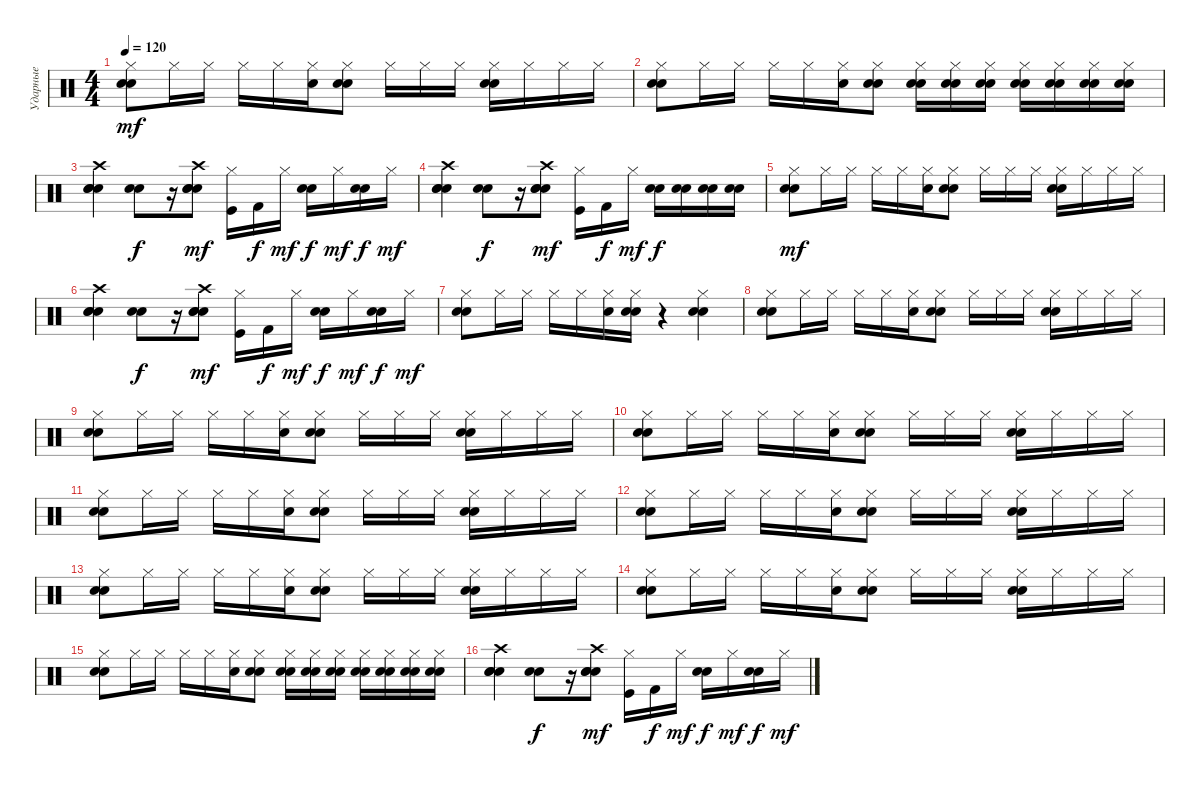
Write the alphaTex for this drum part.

\track ("Ударные" "Ударные") {instrument percussion}
\staff {score}
\articulation defaults
\ts (4 4)
\tempo 120
\clef neutral
\ks c
("Hi-Hat (closed)" "Electric Snare (hit)" "Electric Snare (hit)").8{dy mf} "Hi-Hat (closed)".16 "Hi-Hat (closed)".16 "Hi-Hat (closed)".16 "Hi-Hat (closed)".16 ("Hi-Hat (closed)" "Electric Snare (hit)").16 ("Hi-Hat (closed)" "Electric Snare (hit)" "Electric Snare (hit)").8 "Hi-Hat (closed)".16 "Hi-Hat (closed)".16 "Hi-Hat (closed)".16 ("Hi-Hat (closed)" "Electric Snare (hit)" "Electric Snare (hit)").16 "Hi-Hat (closed)".16 "Hi-Hat (closed)".16 "Hi-Hat (closed)".16 |
("Hi-Hat (closed)" "Electric Snare (hit)" "Electric Snare (hit)").8 "Hi-Hat (closed)".16 "Hi-Hat (closed)".16 "Hi-Hat (closed)".16 "Hi-Hat (closed)".16 ("Hi-Hat (closed)" "Electric Snare (hit)").16 ("Hi-Hat (closed)" "Electric Snare (hit)" "Electric Snare (hit)").8 ("Hi-Hat (closed)" "Electric Snare (hit)" "Electric Snare (hit)").16 ("Hi-Hat (closed)" "Electric Snare (hit)" "Electric Snare (hit)").16 ("Hi-Hat (closed)" "Electric Snare (hit)" "Electric Snare (hit)").16 ("Hi-Hat (closed)" "Electric Snare (hit)" "Electric Snare (hit)").16 ("Hi-Hat (closed)" "Electric Snare (hit)" "Electric Snare (hit)").16 ("Hi-Hat (closed)" "Electric Snare (hit)" "Electric Snare (hit)").16 ("Hi-Hat (closed)" "Electric Snare (hit)" "Electric Snare (hit)").16 |
("Crash high (hit)" "Electric Snare (hit)" "Electric Snare (hit)" "Snare (hit) 2").4 ("Electric Snare (hit)" "Electric Snare (hit)").8{dy f} r.16 ("Crash high (hit)" "Electric Snare (hit)" "Electric Snare (hit)" "Snare (hit) 2").8{dy mf} ("Hi-Hat (closed)" "Kick (hit)").16 "Kick (hit) 2".16{dy f} "Hi-Hat (closed)".16{dy mf} ("Electric Snare (hit)" "Electric Snare (hit)").16{dy f} "Hi-Hat (closed)".16{dy mf} ("Electric Snare (hit)" "Electric Snare (hit)").16{dy f} "Hi-Hat (closed)".16{dy mf} |
("Crash high (hit)" "Electric Snare (hit)" "Electric Snare (hit)" "Snare (hit) 2").4 ("Electric Snare (hit)" "Electric Snare (hit)").8{dy f} r.16 ("Crash high (hit)" "Electric Snare (hit)" "Electric Snare (hit)" "Snare (hit) 2").8{dy mf} ("Hi-Hat (closed)" "Kick (hit)").16 "Kick (hit) 2".16{dy f} "Hi-Hat (closed)".16{dy mf} ("Electric Snare (hit)" "Electric Snare (hit)").16{dy f} ("Electric Snare (hit)" "Electric Snare (hit)").16 ("Electric Snare (hit)" "Electric Snare (hit)").16 ("Electric Snare (hit)" "Electric Snare (hit)").16 |
("Hi-Hat (closed)" "Electric Snare (hit)" "Electric Snare (hit)").8{dy mf} "Hi-Hat (closed)".16 "Hi-Hat (closed)".16 "Hi-Hat (closed)".16 "Hi-Hat (closed)".16 ("Hi-Hat (closed)" "Electric Snare (hit)").16 ("Hi-Hat (closed)" "Electric Snare (hit)" "Electric Snare (hit)").8 "Hi-Hat (closed)".16 "Hi-Hat (closed)".16 "Hi-Hat (closed)".16 ("Hi-Hat (closed)" "Electric Snare (hit)" "Electric Snare (hit)").16 "Hi-Hat (closed)".16 "Hi-Hat (closed)".16 "Hi-Hat (closed)".16 |
("Crash high (hit)" "Electric Snare (hit)" "Electric Snare (hit)" "Snare (hit) 2").4 ("Electric Snare (hit)" "Electric Snare (hit)").8{dy f} r.16 ("Crash high (hit)" "Electric Snare (hit)" "Electric Snare (hit)" "Snare (hit) 2").8{dy mf} ("Hi-Hat (closed)" "Kick (hit)").16 "Kick (hit) 2".16{dy f} "Hi-Hat (closed)".16{dy mf} ("Electric Snare (hit)" "Electric Snare (hit)").16{dy f} "Hi-Hat (closed)".16{dy mf} ("Electric Snare (hit)" "Electric Snare (hit)").16{dy f} "Hi-Hat (closed)".16{dy mf} |
("Hi-Hat (closed)" "Electric Snare (hit)" "Electric Snare (hit)").8 "Hi-Hat (closed)".16 "Hi-Hat (closed)".16 "Hi-Hat (closed)".16 "Hi-Hat (closed)".16 ("Hi-Hat (closed)" "Electric Snare (hit)").16 ("Hi-Hat (closed)" "Electric Snare (hit)" "Electric Snare (hit)").16 r.4 ("Hi-Hat (closed)" "Electric Snare (hit)" "Electric Snare (hit)").4 |
("Hi-Hat (closed)" "Electric Snare (hit)" "Electric Snare (hit)").8 "Hi-Hat (closed)".16 "Hi-Hat (closed)".16 "Hi-Hat (closed)".16 "Hi-Hat (closed)".16 ("Hi-Hat (closed)" "Electric Snare (hit)").16 ("Hi-Hat (closed)" "Electric Snare (hit)" "Electric Snare (hit)").8 "Hi-Hat (closed)".16 "Hi-Hat (closed)".16 "Hi-Hat (closed)".16 ("Hi-Hat (closed)" "Electric Snare (hit)" "Electric Snare (hit)").16 "Hi-Hat (closed)".16 "Hi-Hat (closed)".16 "Hi-Hat (closed)".16 |
("Hi-Hat (closed)" "Electric Snare (hit)" "Electric Snare (hit)").8 "Hi-Hat (closed)".16 "Hi-Hat (closed)".16 "Hi-Hat (closed)".16 "Hi-Hat (closed)".16 ("Hi-Hat (closed)" "Electric Snare (hit)").16 ("Hi-Hat (closed)" "Electric Snare (hit)" "Electric Snare (hit)").8 "Hi-Hat (closed)".16 "Hi-Hat (closed)".16 "Hi-Hat (closed)".16 ("Hi-Hat (closed)" "Electric Snare (hit)" "Electric Snare (hit)").16 "Hi-Hat (closed)".16 "Hi-Hat (closed)".16 "Hi-Hat (closed)".16 |
("Hi-Hat (closed)" "Electric Snare (hit)" "Electric Snare (hit)").8 "Hi-Hat (closed)".16 "Hi-Hat (closed)".16 "Hi-Hat (closed)".16 "Hi-Hat (closed)".16 ("Hi-Hat (closed)" "Electric Snare (hit)").16 ("Hi-Hat (closed)" "Electric Snare (hit)" "Electric Snare (hit)").8 "Hi-Hat (closed)".16 "Hi-Hat (closed)".16 "Hi-Hat (closed)".16 ("Hi-Hat (closed)" "Electric Snare (hit)" "Electric Snare (hit)").16 "Hi-Hat (closed)".16 "Hi-Hat (closed)".16 "Hi-Hat (closed)".16 |
("Hi-Hat (closed)" "Electric Snare (hit)" "Electric Snare (hit)").8 "Hi-Hat (closed)".16 "Hi-Hat (closed)".16 "Hi-Hat (closed)".16 "Hi-Hat (closed)".16 ("Hi-Hat (closed)" "Electric Snare (hit)").16 ("Hi-Hat (closed)" "Electric Snare (hit)" "Electric Snare (hit)").8 "Hi-Hat (closed)".16 "Hi-Hat (closed)".16 "Hi-Hat (closed)".16 ("Hi-Hat (closed)" "Electric Snare (hit)" "Electric Snare (hit)").16 "Hi-Hat (closed)".16 "Hi-Hat (closed)".16 "Hi-Hat (closed)".16 |
("Hi-Hat (closed)" "Electric Snare (hit)" "Electric Snare (hit)").8 "Hi-Hat (closed)".16 "Hi-Hat (closed)".16 "Hi-Hat (closed)".16 "Hi-Hat (closed)".16 ("Hi-Hat (closed)" "Electric Snare (hit)").16 ("Hi-Hat (closed)" "Electric Snare (hit)" "Electric Snare (hit)").8 "Hi-Hat (closed)".16 "Hi-Hat (closed)".16 "Hi-Hat (closed)".16 ("Hi-Hat (closed)" "Electric Snare (hit)" "Electric Snare (hit)").16 "Hi-Hat (closed)".16 "Hi-Hat (closed)".16 "Hi-Hat (closed)".16 |
("Hi-Hat (closed)" "Electric Snare (hit)" "Electric Snare (hit)").8 "Hi-Hat (closed)".16 "Hi-Hat (closed)".16 "Hi-Hat (closed)".16 "Hi-Hat (closed)".16 ("Hi-Hat (closed)" "Electric Snare (hit)").16 ("Hi-Hat (closed)" "Electric Snare (hit)" "Electric Snare (hit)").8 "Hi-Hat (closed)".16 "Hi-Hat (closed)".16 "Hi-Hat (closed)".16 ("Hi-Hat (closed)" "Electric Snare (hit)" "Electric Snare (hit)").16 "Hi-Hat (closed)".16 "Hi-Hat (closed)".16 "Hi-Hat (closed)".16 |
("Hi-Hat (closed)" "Electric Snare (hit)" "Electric Snare (hit)").8 "Hi-Hat (closed)".16 "Hi-Hat (closed)".16 "Hi-Hat (closed)".16 "Hi-Hat (closed)".16 ("Hi-Hat (closed)" "Electric Snare (hit)").16 ("Hi-Hat (closed)" "Electric Snare (hit)" "Electric Snare (hit)").8 "Hi-Hat (closed)".16 "Hi-Hat (closed)".16 "Hi-Hat (closed)".16 ("Hi-Hat (closed)" "Electric Snare (hit)" "Electric Snare (hit)").16 "Hi-Hat (closed)".16 "Hi-Hat (closed)".16 "Hi-Hat (closed)".16 |
("Hi-Hat (closed)" "Electric Snare (hit)" "Electric Snare (hit)").8 "Hi-Hat (closed)".16 "Hi-Hat (closed)".16 "Hi-Hat (closed)".16 "Hi-Hat (closed)".16 ("Hi-Hat (closed)" "Electric Snare (hit)").16 ("Hi-Hat (closed)" "Electric Snare (hit)" "Electric Snare (hit)").8 ("Hi-Hat (closed)" "Electric Snare (hit)" "Electric Snare (hit)").16 ("Hi-Hat (closed)" "Electric Snare (hit)" "Electric Snare (hit)").16 ("Hi-Hat (closed)" "Electric Snare (hit)" "Electric Snare (hit)").16 ("Hi-Hat (closed)" "Electric Snare (hit)" "Electric Snare (hit)").16 ("Hi-Hat (closed)" "Electric Snare (hit)" "Electric Snare (hit)").16 ("Hi-Hat (closed)" "Electric Snare (hit)" "Electric Snare (hit)").16 ("Hi-Hat (closed)" "Electric Snare (hit)" "Electric Snare (hit)").16 |
("Crash high (hit)" "Electric Snare (hit)" "Electric Snare (hit)" "Snare (hit) 2").4 ("Electric Snare (hit)" "Electric Snare (hit)").8{dy f} r.16 ("Crash high (hit)" "Electric Snare (hit)" "Electric Snare (hit)" "Snare (hit) 2").8{dy mf} ("Hi-Hat (closed)" "Kick (hit)").16 "Kick (hit) 2".16{dy f} "Hi-Hat (closed)".16{dy mf} ("Electric Snare (hit)" "Electric Snare (hit)").16{dy f} "Hi-Hat (closed)".16{dy mf} ("Electric Snare (hit)" "Electric Snare (hit)").16{dy f} "Hi-Hat (closed)".16{dy mf}
